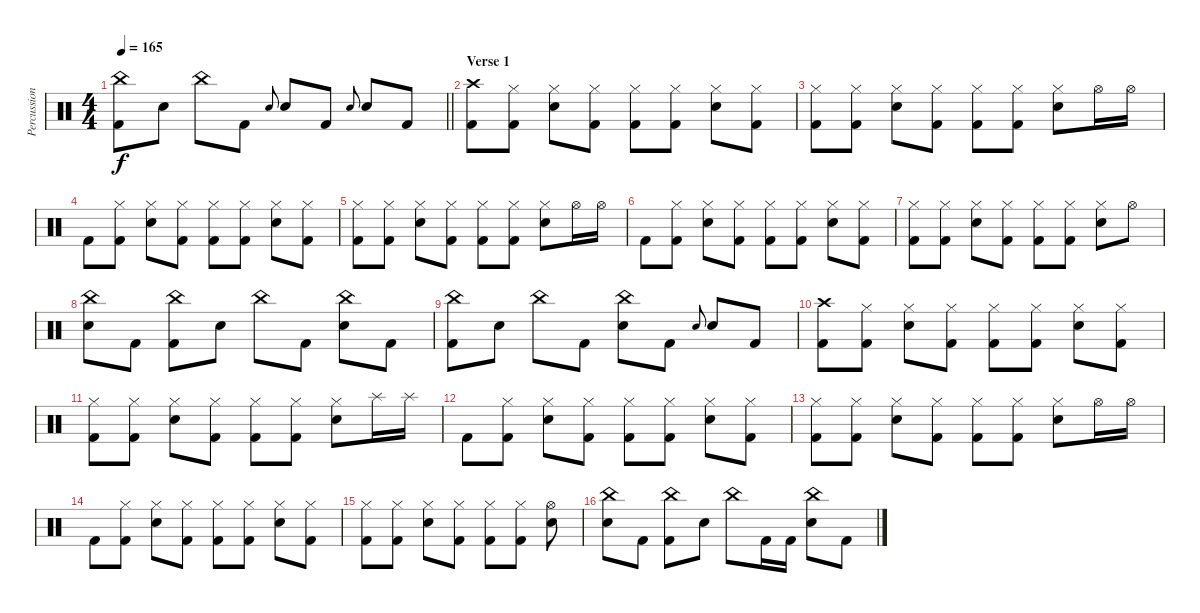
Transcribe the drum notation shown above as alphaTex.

\track ("Percussions" "Percussion") {instrument percussion}
\staff
\articulation defaults
\ts (4 4)
\tempo 165
\clef neutral
\barLineRight lightlight
\ks c
("China (hit)" "Kick (hit) 2").8{dy f} "Electric Snare (hit)".8 "China (hit)".8 "Kick (hit) 2".8 "Electric Snare (hit)".8{gr onbeat} "Electric Snare (hit)".8 "Kick (hit) 2".8 "Electric Snare (hit)".8{gr onbeat} "Electric Snare (hit)".8 "Kick (hit) 2".8 |
\section ("" "Verse 1")
("Crash high (hit)" "Kick (hit) 2").8 ("Hi-Hat (closed)" "Kick (hit) 2").8 ("Hi-Hat (closed)" "Electric Snare (hit)").8 ("Hi-Hat (closed)" "Kick (hit) 2").8 ("Hi-Hat (closed)" "Kick (hit) 2").8 ("Hi-Hat (closed)" "Kick (hit) 2").8 ("Hi-Hat (closed)" "Electric Snare (hit)").8 ("Hi-Hat (closed)" "Kick (hit) 2").8 |
("Hi-Hat (closed)" "Kick (hit) 2").8 ("Hi-Hat (closed)" "Kick (hit) 2").8 ("Hi-Hat (closed)" "Electric Snare (hit)").8 ("Hi-Hat (closed)" "Kick (hit) 2").8 ("Hi-Hat (closed)" "Kick (hit) 2").8 ("Hi-Hat (closed)" "Kick (hit) 2").8 ("Hi-Hat (closed)" "Electric Snare (hit)").8 "Hi-Hat (open)".16 "Hi-Hat (open)".16 |
"Kick (hit) 2".8 ("Hi-Hat (closed)" "Kick (hit) 2").8 ("Hi-Hat (closed)" "Electric Snare (hit)").8 ("Hi-Hat (closed)" "Kick (hit) 2").8 ("Hi-Hat (closed)" "Kick (hit) 2").8 ("Hi-Hat (closed)" "Kick (hit) 2").8 ("Hi-Hat (closed)" "Electric Snare (hit)").8 ("Hi-Hat (closed)" "Kick (hit) 2").8 |
("Hi-Hat (closed)" "Kick (hit) 2").8 ("Hi-Hat (closed)" "Kick (hit) 2").8 ("Hi-Hat (closed)" "Electric Snare (hit)").8 ("Hi-Hat (closed)" "Kick (hit) 2").8 ("Hi-Hat (closed)" "Kick (hit) 2").8 ("Hi-Hat (closed)" "Kick (hit) 2").8 ("Hi-Hat (closed)" "Electric Snare (hit)").8 "Hi-Hat (open)".16 "Hi-Hat (open)".16 |
"Kick (hit) 2".8 ("Hi-Hat (closed)" "Kick (hit) 2").8 ("Hi-Hat (closed)" "Electric Snare (hit)").8 ("Hi-Hat (closed)" "Kick (hit) 2").8 ("Hi-Hat (closed)" "Kick (hit) 2").8 ("Hi-Hat (closed)" "Kick (hit) 2").8 ("Hi-Hat (closed)" "Electric Snare (hit)").8 ("Hi-Hat (closed)" "Kick (hit) 2").8 |
("Hi-Hat (closed)" "Kick (hit) 2").8 ("Hi-Hat (closed)" "Kick (hit) 2").8 ("Hi-Hat (closed)" "Electric Snare (hit)").8 ("Hi-Hat (closed)" "Kick (hit) 2").8 ("Hi-Hat (closed)" "Kick (hit) 2").8 ("Hi-Hat (closed)" "Kick (hit) 2").8 ("Hi-Hat (closed)" "Electric Snare (hit)").8 "Hi-Hat (open)".8 |
("China (hit)" "Electric Snare (hit)").8 "Kick (hit) 2".8 ("China (hit)" "Kick (hit) 2").8 "Electric Snare (hit)".8 "China (hit)".8 "Kick (hit) 2".8 ("China (hit)" "Electric Snare (hit)").8 "Kick (hit) 2".8 |
("China (hit)" "Kick (hit) 2").8 "Electric Snare (hit)".8 "China (hit)".8 "Kick (hit) 2".8 ("China (hit)" "Electric Snare (hit)").8 "Kick (hit) 2".8 "Electric Snare (hit)".8{gr onbeat} "Electric Snare (hit)".8 "Kick (hit) 2".8 |
("Crash high (hit)" "Kick (hit) 2").8 ("Hi-Hat (closed)" "Kick (hit) 2").8 ("Hi-Hat (closed)" "Electric Snare (hit)").8 ("Hi-Hat (closed)" "Kick (hit) 2").8 ("Hi-Hat (closed)" "Kick (hit) 2").8 ("Hi-Hat (closed)" "Kick (hit) 2").8 ("Hi-Hat (closed)" "Electric Snare (hit)").8 ("Hi-Hat (closed)" "Kick (hit) 2").8 |
("Hi-Hat (closed)" "Kick (hit) 2").8 ("Hi-Hat (closed)" "Kick (hit) 2").8 ("Hi-Hat (closed)" "Electric Snare (hit)").8 ("Hi-Hat (closed)" "Kick (hit) 2").8 ("Hi-Hat (closed)" "Kick (hit) 2").8 ("Hi-Hat (closed)" "Kick (hit) 2").8 ("Hi-Hat (closed)" "Electric Snare (hit)").8 "Splash (hit)".16 "Splash (hit)".16 |
"Kick (hit) 2".8 ("Hi-Hat (closed)" "Kick (hit) 2").8 ("Hi-Hat (closed)" "Electric Snare (hit)").8 ("Hi-Hat (closed)" "Kick (hit) 2").8 ("Hi-Hat (closed)" "Kick (hit) 2").8 ("Hi-Hat (closed)" "Kick (hit) 2").8 ("Hi-Hat (closed)" "Electric Snare (hit)").8 ("Hi-Hat (closed)" "Kick (hit) 2").8 |
("Hi-Hat (closed)" "Kick (hit) 2").8 ("Hi-Hat (closed)" "Kick (hit) 2").8 ("Hi-Hat (closed)" "Electric Snare (hit)").8 ("Hi-Hat (closed)" "Kick (hit) 2").8 ("Hi-Hat (closed)" "Kick (hit) 2").8 ("Hi-Hat (closed)" "Kick (hit) 2").8 ("Hi-Hat (closed)" "Electric Snare (hit)").8 "Hi-Hat (open)".16 "Hi-Hat (open)".16 |
"Kick (hit) 2".8 ("Hi-Hat (closed)" "Kick (hit) 2").8 ("Hi-Hat (closed)" "Electric Snare (hit)").8 ("Hi-Hat (closed)" "Kick (hit) 2").8 ("Hi-Hat (closed)" "Kick (hit) 2").8 ("Hi-Hat (closed)" "Kick (hit) 2").8 ("Hi-Hat (closed)" "Electric Snare (hit)").8 ("Hi-Hat (closed)" "Kick (hit) 2").8 |
("Hi-Hat (closed)" "Kick (hit) 2").8 ("Hi-Hat (closed)" "Kick (hit) 2").8 ("Hi-Hat (closed)" "Electric Snare (hit)").8 ("Hi-Hat (closed)" "Kick (hit) 2").8 ("Hi-Hat (closed)" "Kick (hit) 2").8 ("Hi-Hat (closed)" "Kick (hit) 2").8 ("Hi-Hat (open)" "Electric Snare (hit)").8 |
("China (hit)" "Electric Snare (hit)").8 "Kick (hit) 2".8 ("China (hit)" "Kick (hit) 2").8 "Electric Snare (hit)".8 "China (hit)".8 "Kick (hit) 2".16 "Kick (hit) 2".16 ("China (hit)" "Electric Snare (hit)").8 "Kick (hit) 2".8
